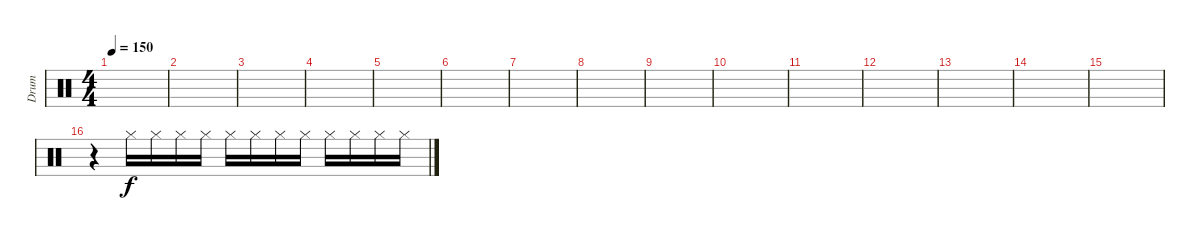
\track ("Drum" "Drum") {instrument percussion}
\staff {score}
\articulation defaults
\ts (4 4)
\tempo 150
\clef neutral
\ks c
|
|
|
|
|
|
|
|
|
|
|
|
|
|
|
r.4 "Hi-Hat (closed)".16 "Hi-Hat (closed)".16 "Hi-Hat (closed)".16 "Hi-Hat (closed)".16 "Hi-Hat (closed)".16 "Hi-Hat (closed)".16 "Hi-Hat (closed)".16 "Hi-Hat (closed)".16 "Hi-Hat (closed)".16 "Hi-Hat (closed)".16 "Hi-Hat (closed)".16 "Hi-Hat (closed)".16
